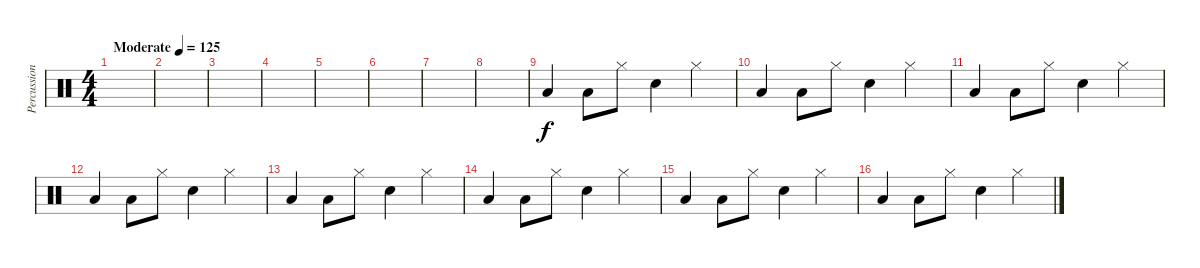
\track ("Percussion" "Percussion") {instrument percussion}
\staff {score}
\articulation defaults
\ts (4 4)
\tempo (125 "Moderate")
\clef neutral
\ks c
|
|
|
|
|
|
|
|
"Low Floor Tom (hit)".4 "Low Floor Tom (hit)".8 "Hi-Hat (closed)".8 "Hand Clap (hit)".4 "Hi-Hat (closed)".4 |
"Low Floor Tom (hit)".4 "Low Floor Tom (hit)".8 "Hi-Hat (closed)".8 "Hand Clap (hit)".4 "Hi-Hat (closed)".4 |
"Low Floor Tom (hit)".4 "Low Floor Tom (hit)".8 "Hi-Hat (closed)".8 "Hand Clap (hit)".4 "Hi-Hat (closed)".4 |
"Low Floor Tom (hit)".4 "Low Floor Tom (hit)".8 "Hi-Hat (closed)".8 "Hand Clap (hit)".4 "Hi-Hat (closed)".4 |
"Low Floor Tom (hit)".4 "Low Floor Tom (hit)".8 "Hi-Hat (closed)".8 "Hand Clap (hit)".4 "Hi-Hat (closed)".4 |
"Low Floor Tom (hit)".4 "Low Floor Tom (hit)".8 "Hi-Hat (closed)".8 "Hand Clap (hit)".4 "Hi-Hat (closed)".4 |
"Low Floor Tom (hit)".4 "Low Floor Tom (hit)".8 "Hi-Hat (closed)".8 "Hand Clap (hit)".4 "Hi-Hat (closed)".4 |
"Low Floor Tom (hit)".4 "Low Floor Tom (hit)".8 "Hi-Hat (closed)".8 "Hand Clap (hit)".4 "Hi-Hat (closed)".4
